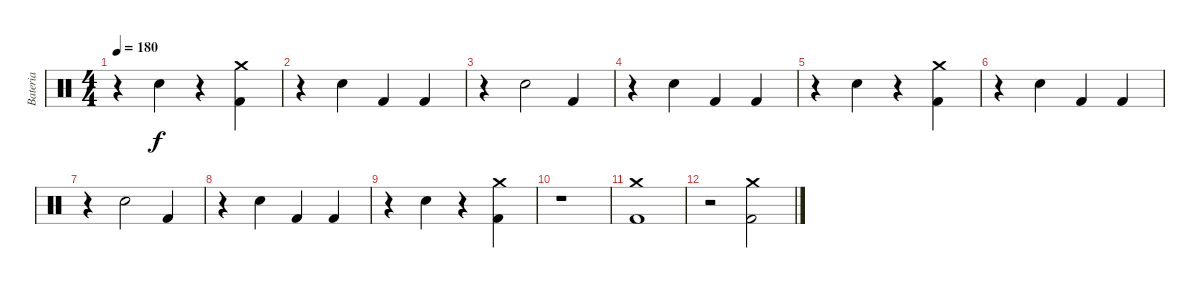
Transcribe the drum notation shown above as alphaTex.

\track ("Bateria" "Bateria") {instrument percussion}
\staff {score}
\articulation defaults
\ts (4 4)
\tempo 180
\clef neutral
\ks c
r.4{dy f} "Electric Snare (hit)".4 r.4 ("Crash medium (hit)" "Kick (hit) 2").4 |
r.4 "Electric Snare (hit)".4 "Kick (hit) 2".4 "Kick (hit) 2".4 |
r.4 "Electric Snare (hit)".2 "Kick (hit) 2".4 |
r.4 "Electric Snare (hit)".4 "Kick (hit) 2".4 "Kick (hit) 2".4 |
r.4 "Electric Snare (hit)".4 r.4 ("Crash medium (hit)" "Kick (hit) 2").4 |
r.4 "Electric Snare (hit)".4 "Kick (hit) 2".4 "Kick (hit) 2".4 |
r.4 "Electric Snare (hit)".2 "Kick (hit) 2".4 |
r.4 "Electric Snare (hit)".4 "Kick (hit) 2".4 "Kick (hit) 2".4 |
r.4 "Electric Snare (hit)".4 r.4 ("Crash medium (hit)" "Kick (hit) 2").4 |
r.1 |
("Crash medium (hit)" "Kick (hit) 2").1 |
r.2 ("Crash medium (hit)" "Kick (hit) 2").2
